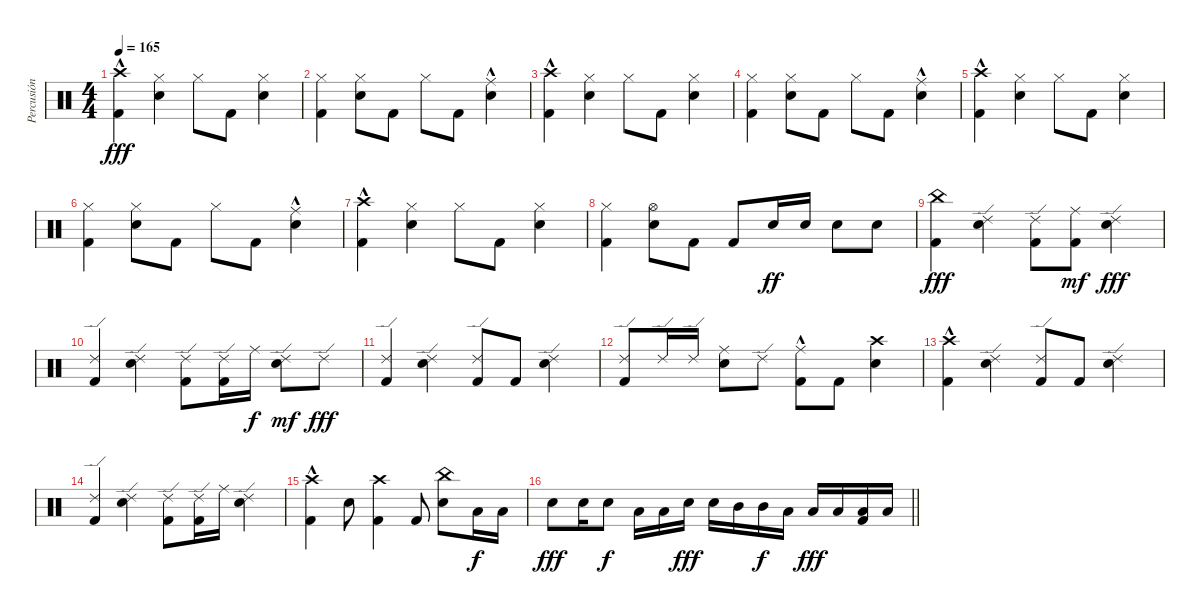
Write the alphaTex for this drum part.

\track ("Percusión" "Percusión") {instrument percussion}
\staff {score}
\articulation defaults
\ts (4 4)
\tempo 165
\clef neutral
\ks c
("Kick (hit) 2" "Crash high (hit)"{hac}).4{dy fff} ("Electric Snare (hit)" "Hi-Hat (closed)").4 "Hi-Hat (closed)".8 "Kick (hit) 2".8 ("Electric Snare (hit)" "Hi-Hat (closed)").4 |
("Kick (hit) 2" "Hi-Hat (closed)").4 ("Electric Snare (hit)" "Hi-Hat (closed)").8 "Kick (hit) 2".8 "Hi-Hat (closed)".8 "Kick (hit) 2".8 ("Electric Snare (hit)" "Ride (middle)"{hac}).4 |
("Kick (hit) 2" "Crash high (hit)"{hac}).4 ("Electric Snare (hit)" "Hi-Hat (closed)").4 "Hi-Hat (closed)".8 "Kick (hit) 2".8 ("Electric Snare (hit)" "Hi-Hat (closed)").4 |
("Kick (hit) 2" "Hi-Hat (closed)").4 ("Electric Snare (hit)" "Hi-Hat (closed)").8 "Kick (hit) 2".8 "Hi-Hat (closed)".8 "Kick (hit) 2".8 ("Electric Snare (hit)" "Ride (middle)"{hac}).4 |
("Kick (hit) 2" "Crash high (hit)"{hac}).4 ("Electric Snare (hit)" "Hi-Hat (closed)").4 "Hi-Hat (closed)".8 "Kick (hit) 2".8 ("Electric Snare (hit)" "Hi-Hat (closed)").4 |
("Kick (hit) 2" "Hi-Hat (closed)").4 ("Electric Snare (hit)" "Hi-Hat (closed)").8 "Kick (hit) 2".8 "Hi-Hat (closed)".8 "Kick (hit) 2".8 ("Electric Snare (hit)" "Ride (middle)"{hac}).4 |
("Kick (hit) 2" "Crash high (hit)"{hac}).4 ("Electric Snare (hit)" "Hi-Hat (closed)").4 "Hi-Hat (closed)".8 "Kick (hit) 2".8 ("Electric Snare (hit)" "Hi-Hat (closed)").4 |
("Kick (hit) 2" "Hi-Hat (closed)").4 ("Electric Snare (hit)" "Hi-Hat (open)").8 "Kick (hit) 2".8 "Kick (hit) 2".8 "Electric Snare (hit)".16{dy ff} "Electric Snare (hit)".16 "Electric Snare (hit)".8 "Electric Snare (hit)".8 |
("Kick (hit) 2" "China (hit)").4{dy fff} ("Electric Snare (hit)" "Ride (edge) 2").4 ("Kick (hit) 2" "Ride (edge) 2").8 ("Kick (hit) 2" "Ride (middle)").8{dy mf} ("Electric Snare (hit)" "Ride (edge) 2").4{dy fff} |
("Kick (hit) 2" "Ride (edge) 2").4 ("Electric Snare (hit)" "Ride (edge) 2").4 ("Kick (hit) 2" "Ride (edge) 2").8 ("Kick (hit) 2" "Ride (edge) 2").16 "Ride (middle)".16{dy f} ("Electric Snare (hit)" "Ride (edge) 2").8{dy mf} "Ride (edge) 2".8{dy fff} |
("Kick (hit) 2" "Ride (edge) 2").4 ("Electric Snare (hit)" "Ride (edge) 2").4 ("Kick (hit) 2" "Ride (edge) 2").8 "Kick (hit) 2".8 ("Electric Snare (hit)" "Ride (edge) 2").4 |
("Kick (hit) 2" "Ride (edge) 2").8 "Ride (edge) 2".16 "Ride (edge) 2".16 ("Electric Snare (hit)" "Ride (middle)").8 "Ride (edge) 2".8 ("Kick (hit) 2" "Ride (middle)"{hac}).8 "Kick (hit) 2".8 ("Electric Snare (hit)" "Crash high (hit)").4 |
("Kick (hit) 2" "Crash high (hit)"{hac}).4 ("Electric Snare (hit)" "Ride (edge) 2").4 ("Kick (hit) 2" "Ride (edge) 2").8 "Kick (hit) 2".8 ("Electric Snare (hit)" "Ride (edge) 2").4 |
("Kick (hit) 2" "Ride (edge) 2").4 ("Electric Snare (hit)" "Ride (edge) 2").4 ("Kick (hit) 2" "Ride (edge) 2").8 ("Kick (hit) 2" "Ride (edge) 2").16 "Ride (middle)".16 ("Electric Snare (hit)" "Ride (edge) 2").4 |
("Kick (hit) 2" "Crash high (hit)"{hac}).4 "Electric Snare (hit)".8 ("Kick (hit) 2" "Crash high (hit)").4 "Kick (hit) 2".8 ("Electric Snare (hit)" "China (hit)").8 "Low Tom (hit)".16{dy f} "Low Tom (hit)".16 |
\barLineRight lightlight "Electric Snare (hit)".8{dy fff} "Electric Snare (hit)".16 "Electric Snare (hit)".8{dy f} "Low Tom (hit)".16 "Low Tom (hit)".16 "Electric Snare (hit)".16{dy fff} "Electric Snare (hit)".16 "Mid Tom (hit)".16 "Mid Tom (hit)".16{dy f} "Low Tom (hit)".16 "Low Tom (hit)".16{dy fff} "Low Floor Tom (hit)".16
("Low Floor Tom (hit)" "Kick (hit) 2").16 "Low Floor Tom (hit)".16
